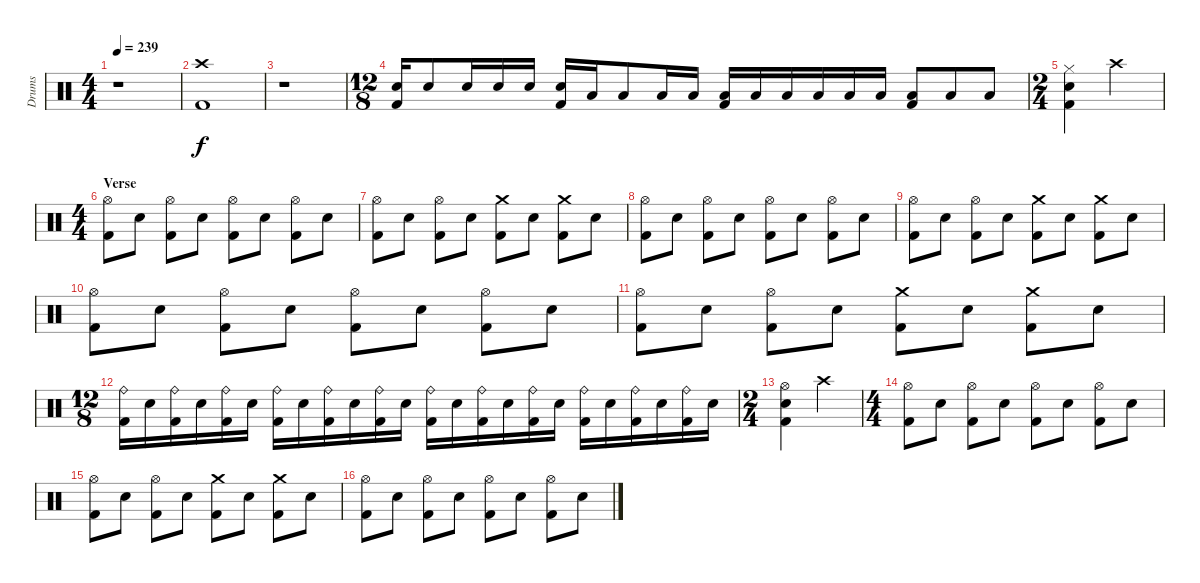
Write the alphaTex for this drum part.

\track ("Drums" "Drums") {instrument percussion}
\staff {score}
\articulation defaults
\ts (4 4)
\tempo 239
\clef neutral
\ks c
r.1{dy f} |
("Crash high (hit)" "Kick (hit) 2").1 |
r.1 |
\ts (12 8)
("Electric Snare (hit)" "Kick (hit) 2").16 "Electric Snare (hit)".8 "Electric Snare (hit)".16 "Electric Snare (hit)".16 "Electric Snare (hit)".16 ("Electric Snare (hit)" "Kick (hit) 2").16 "Low Tom (hit)".16 "Low Tom (hit)".8 "Low Tom (hit)".16 "Low Tom (hit)".16 ("Low Tom (hit)" "Kick (hit) 2").16 "Low Tom (hit)".16 "Low Tom (hit)".16 "Low Tom (hit)".16 "Low Tom (hit)".16 "Low Tom (hit)".16 ("Low Floor Tom (hit)" "Kick (hit) 2").8 "Low Floor Tom (hit)".8 "Low Floor Tom (hit)".8 |
\ts (2 4)
("Hi-Hat (closed)" "Electric Snare (hit)" "Kick (hit) 2").4 "Crash high (hit)".4 |
\ts (4 4)
\section ("" "Verse")
("Hi-Hat (open)" "Kick (hit) 2").8 "Electric Snare (hit)".8 ("Hi-Hat (open)" "Kick (hit) 2").8 "Electric Snare (hit)".8 ("Hi-Hat (open)" "Kick (hit) 2").8 "Electric Snare (hit)".8 ("Hi-Hat (open)" "Kick (hit) 2").8 "Electric Snare (hit)".8 |
("Hi-Hat (open)" "Kick (hit) 2").8 "Electric Snare (hit)".8 ("Hi-Hat (open)" "Kick (hit) 2").8 "Electric Snare (hit)".8 ("Crash medium (hit)" "Kick (hit) 2").8 "Electric Snare (hit)".8 ("Crash medium (hit)" "Kick (hit) 2").8 "Electric Snare (hit)".8 |
("Hi-Hat (open)" "Kick (hit) 2").8 "Electric Snare (hit)".8 ("Hi-Hat (open)" "Kick (hit) 2").8 "Electric Snare (hit)".8 ("Hi-Hat (open)" "Kick (hit) 2").8 "Electric Snare (hit)".8 ("Hi-Hat (open)" "Kick (hit) 2").8 "Electric Snare (hit)".8 |
("Hi-Hat (open)" "Kick (hit) 2").8 "Electric Snare (hit)".8 ("Hi-Hat (open)" "Kick (hit) 2").8 "Electric Snare (hit)".8 ("Crash medium (hit)" "Kick (hit) 2").8 "Electric Snare (hit)".8 ("Crash medium (hit)" "Kick (hit) 2").8 "Electric Snare (hit)".8 |
("Hi-Hat (open)" "Kick (hit) 2").8 "Electric Snare (hit)".8 ("Hi-Hat (open)" "Kick (hit) 2").8 "Electric Snare (hit)".8 ("Hi-Hat (open)" "Kick (hit) 2").8 "Electric Snare (hit)".8 ("Hi-Hat (open)" "Kick (hit) 2").8 "Electric Snare (hit)".8 |
("Hi-Hat (open)" "Kick (hit) 2").8 "Electric Snare (hit)".8 ("Hi-Hat (open)" "Kick (hit) 2").8 "Electric Snare (hit)".8 ("Crash medium (hit)" "Kick (hit) 2").8 "Electric Snare (hit)".8 ("Crash medium (hit)" "Kick (hit) 2").8 "Electric Snare (hit)".8 |
\ts (12 8)
("Ride (bell)" "Kick (hit) 2").16 "Electric Snare (hit)".16 ("Ride (bell)" "Kick (hit) 2").16 "Electric Snare (hit)".16 ("Ride (bell)" "Kick (hit) 2").16 "Electric Snare (hit)".16 ("Ride (bell)" "Kick (hit) 2").16 "Electric Snare (hit)".16 ("Ride (bell)" "Kick (hit) 2").16 "Electric Snare (hit)".16 ("Ride (bell)" "Kick (hit) 2").16 "Electric Snare (hit)".16 ("Ride (bell)" "Kick (hit) 2").16 "Electric Snare (hit)".16 ("Ride (bell)" "Kick (hit) 2").16 "Electric Snare (hit)".16 ("Ride (bell)" "Kick (hit) 2").16 "Electric Snare (hit)".16 ("Ride (bell)" "Kick (hit) 2").16 "Electric Snare (hit)".16 ("Ride (bell)" "Kick (hit) 2").16 "Electric Snare (hit)".16 ("Ride (bell)" "Kick (hit) 2").16 "Electric Snare (hit)".16 |
\ts (2 4)
("Hi-Hat (open)" "Electric Snare (hit)" "Kick (hit) 2").4 "Crash high (hit)".4 |
\ts (4 4)
("Hi-Hat (open)" "Kick (hit) 2").8 "Electric Snare (hit)".8 ("Hi-Hat (open)" "Kick (hit) 2").8 "Electric Snare (hit)".8 ("Hi-Hat (open)" "Kick (hit) 2").8 "Electric Snare (hit)".8 ("Hi-Hat (open)" "Kick (hit) 2").8 "Electric Snare (hit)".8 |
("Hi-Hat (open)" "Kick (hit) 2").8 "Electric Snare (hit)".8 ("Hi-Hat (open)" "Kick (hit) 2").8 "Electric Snare (hit)".8 ("Crash medium (hit)" "Kick (hit) 2").8 "Electric Snare (hit)".8 ("Crash medium (hit)" "Kick (hit) 2").8 "Electric Snare (hit)".8 |
("Hi-Hat (open)" "Kick (hit) 2").8 "Electric Snare (hit)".8 ("Hi-Hat (open)" "Kick (hit) 2").8 "Electric Snare (hit)".8 ("Hi-Hat (open)" "Kick (hit) 2").8 "Electric Snare (hit)".8 ("Hi-Hat (open)" "Kick (hit) 2").8 "Electric Snare (hit)".8
